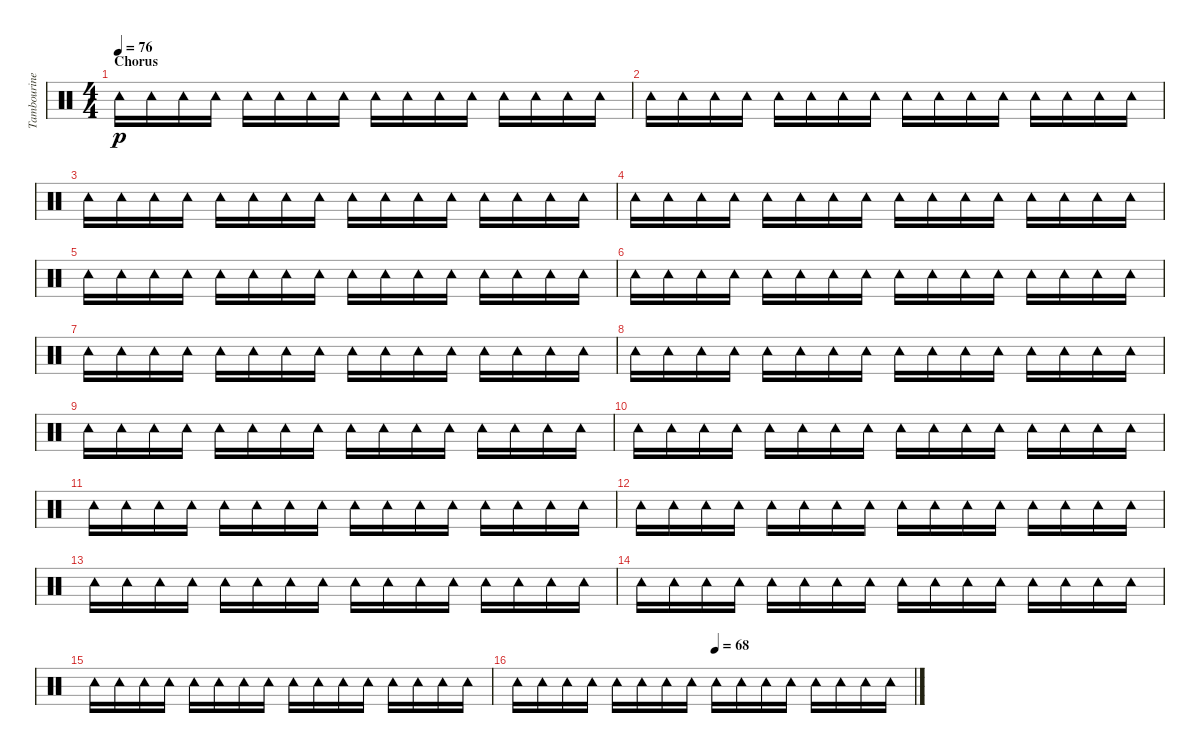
\track ("Tambourine" "Tambourine") {instrument percussion}
\staff {score}
\articulation defaults
\ts (4 4)
\section ("" "Chorus")
\tempo 76
\clef neutral
\ks c "Tambourine (hit)".16{dy p} "Tambourine (hit)".16 "Tambourine (hit)".16 "Tambourine (hit)".16 "Tambourine (hit)".16 "Tambourine (hit)".16 "Tambourine (hit)".16 "Tambourine (hit)".16 "Tambourine (hit)".16 "Tambourine (hit)".16 "Tambourine (hit)".16 "Tambourine (hit)".16 "Tambourine (hit)".16 "Tambourine (hit)".16 "Tambourine (hit)".16 "Tambourine (hit)".16
|
"Tambourine (hit)".16 "Tambourine (hit)".16 "Tambourine (hit)".16 "Tambourine (hit)".16 "Tambourine (hit)".16 "Tambourine (hit)".16 "Tambourine (hit)".16 "Tambourine (hit)".16 "Tambourine (hit)".16 "Tambourine (hit)".16 "Tambourine (hit)".16 "Tambourine (hit)".16 "Tambourine (hit)".16 "Tambourine (hit)".16 "Tambourine (hit)".16 "Tambourine (hit)".16 |
"Tambourine (hit)".16 "Tambourine (hit)".16 "Tambourine (hit)".16 "Tambourine (hit)".16 "Tambourine (hit)".16 "Tambourine (hit)".16 "Tambourine (hit)".16 "Tambourine (hit)".16 "Tambourine (hit)".16 "Tambourine (hit)".16 "Tambourine (hit)".16 "Tambourine (hit)".16 "Tambourine (hit)".16 "Tambourine (hit)".16 "Tambourine (hit)".16 "Tambourine (hit)".16 |
"Tambourine (hit)".16 "Tambourine (hit)".16 "Tambourine (hit)".16 "Tambourine (hit)".16 "Tambourine (hit)".16 "Tambourine (hit)".16 "Tambourine (hit)".16 "Tambourine (hit)".16 "Tambourine (hit)".16 "Tambourine (hit)".16 "Tambourine (hit)".16 "Tambourine (hit)".16 "Tambourine (hit)".16 "Tambourine (hit)".16 "Tambourine (hit)".16 "Tambourine (hit)".16 |
"Tambourine (hit)".16 "Tambourine (hit)".16 "Tambourine (hit)".16 "Tambourine (hit)".16 "Tambourine (hit)".16 "Tambourine (hit)".16 "Tambourine (hit)".16 "Tambourine (hit)".16 "Tambourine (hit)".16 "Tambourine (hit)".16 "Tambourine (hit)".16 "Tambourine (hit)".16 "Tambourine (hit)".16 "Tambourine (hit)".16 "Tambourine (hit)".16 "Tambourine (hit)".16 |
"Tambourine (hit)".16 "Tambourine (hit)".16 "Tambourine (hit)".16 "Tambourine (hit)".16 "Tambourine (hit)".16 "Tambourine (hit)".16 "Tambourine (hit)".16 "Tambourine (hit)".16 "Tambourine (hit)".16 "Tambourine (hit)".16 "Tambourine (hit)".16 "Tambourine (hit)".16 "Tambourine (hit)".16 "Tambourine (hit)".16 "Tambourine (hit)".16 "Tambourine (hit)".16 |
"Tambourine (hit)".16 "Tambourine (hit)".16 "Tambourine (hit)".16 "Tambourine (hit)".16 "Tambourine (hit)".16 "Tambourine (hit)".16 "Tambourine (hit)".16 "Tambourine (hit)".16 "Tambourine (hit)".16 "Tambourine (hit)".16 "Tambourine (hit)".16 "Tambourine (hit)".16 "Tambourine (hit)".16 "Tambourine (hit)".16 "Tambourine (hit)".16 "Tambourine (hit)".16 |
"Tambourine (hit)".16 "Tambourine (hit)".16 "Tambourine (hit)".16 "Tambourine (hit)".16 "Tambourine (hit)".16 "Tambourine (hit)".16 "Tambourine (hit)".16 "Tambourine (hit)".16 "Tambourine (hit)".16 "Tambourine (hit)".16 "Tambourine (hit)".16 "Tambourine (hit)".16 "Tambourine (hit)".16 "Tambourine (hit)".16 "Tambourine (hit)".16 "Tambourine (hit)".16 |
"Tambourine (hit)".16 "Tambourine (hit)".16 "Tambourine (hit)".16 "Tambourine (hit)".16 "Tambourine (hit)".16 "Tambourine (hit)".16 "Tambourine (hit)".16 "Tambourine (hit)".16 "Tambourine (hit)".16 "Tambourine (hit)".16 "Tambourine (hit)".16 "Tambourine (hit)".16 "Tambourine (hit)".16 "Tambourine (hit)".16 "Tambourine (hit)".16 "Tambourine (hit)".16 |
"Tambourine (hit)".16 "Tambourine (hit)".16 "Tambourine (hit)".16 "Tambourine (hit)".16 "Tambourine (hit)".16 "Tambourine (hit)".16 "Tambourine (hit)".16 "Tambourine (hit)".16 "Tambourine (hit)".16 "Tambourine (hit)".16 "Tambourine (hit)".16 "Tambourine (hit)".16 "Tambourine (hit)".16 "Tambourine (hit)".16 "Tambourine (hit)".16 "Tambourine (hit)".16 |
"Tambourine (hit)".16 "Tambourine (hit)".16 "Tambourine (hit)".16 "Tambourine (hit)".16 "Tambourine (hit)".16 "Tambourine (hit)".16 "Tambourine (hit)".16 "Tambourine (hit)".16 "Tambourine (hit)".16 "Tambourine (hit)".16 "Tambourine (hit)".16 "Tambourine (hit)".16 "Tambourine (hit)".16 "Tambourine (hit)".16 "Tambourine (hit)".16 "Tambourine (hit)".16 |
"Tambourine (hit)".16 "Tambourine (hit)".16 "Tambourine (hit)".16 "Tambourine (hit)".16 "Tambourine (hit)".16 "Tambourine (hit)".16 "Tambourine (hit)".16 "Tambourine (hit)".16 "Tambourine (hit)".16 "Tambourine (hit)".16 "Tambourine (hit)".16 "Tambourine (hit)".16 "Tambourine (hit)".16 "Tambourine (hit)".16 "Tambourine (hit)".16 "Tambourine (hit)".16 |
"Tambourine (hit)".16 "Tambourine (hit)".16 "Tambourine (hit)".16 "Tambourine (hit)".16 "Tambourine (hit)".16 "Tambourine (hit)".16 "Tambourine (hit)".16 "Tambourine (hit)".16 "Tambourine (hit)".16 "Tambourine (hit)".16 "Tambourine (hit)".16 "Tambourine (hit)".16 "Tambourine (hit)".16 "Tambourine (hit)".16 "Tambourine (hit)".16 "Tambourine (hit)".16 |
"Tambourine (hit)".16 "Tambourine (hit)".16 "Tambourine (hit)".16 "Tambourine (hit)".16 "Tambourine (hit)".16 "Tambourine (hit)".16 "Tambourine (hit)".16 "Tambourine (hit)".16 "Tambourine (hit)".16 "Tambourine (hit)".16 "Tambourine (hit)".16 "Tambourine (hit)".16 "Tambourine (hit)".16 "Tambourine (hit)".16 "Tambourine (hit)".16 "Tambourine (hit)".16 |
"Tambourine (hit)".16 "Tambourine (hit)".16 "Tambourine (hit)".16 "Tambourine (hit)".16 "Tambourine (hit)".16 "Tambourine (hit)".16 "Tambourine (hit)".16 "Tambourine (hit)".16 "Tambourine (hit)".16 "Tambourine (hit)".16 "Tambourine (hit)".16 "Tambourine (hit)".16 "Tambourine (hit)".16 "Tambourine (hit)".16 "Tambourine (hit)".16 "Tambourine (hit)".16 |
\tempo (68 0.5)
"Tambourine (hit)".16 "Tambourine (hit)".16 "Tambourine (hit)".16 "Tambourine (hit)".16 "Tambourine (hit)".16 "Tambourine (hit)".16 "Tambourine (hit)".16 "Tambourine (hit)".16 "Tambourine (hit)".16 "Tambourine (hit)".16 "Tambourine (hit)".16 "Tambourine (hit)".16 "Tambourine (hit)".16 "Tambourine (hit)".16 "Tambourine (hit)".16 "Tambourine (hit)".16
